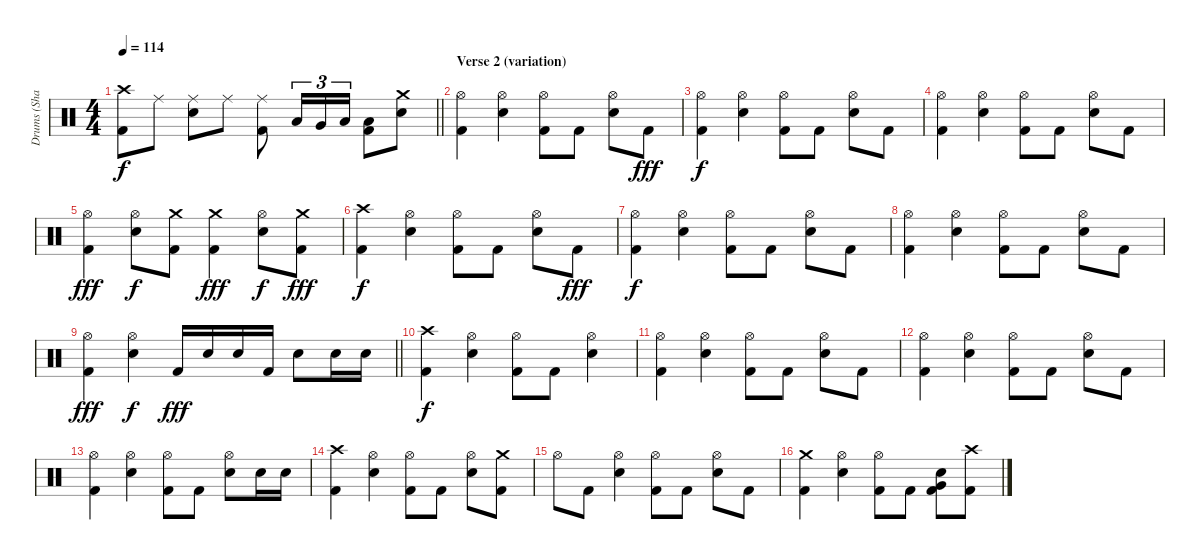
\track ("Drums (Shawn)" "Drums (Sha") {instrument percussion}
\staff {score}
\articulation defaults
\ts (4 4)
\tempo 114
\clef neutral
\barLineRight lightlight
\ks c
("Crash high (hit)" "Kick (hit) 2").8{dy f} "Ride (middle)".8 ("Ride (middle)" "Snare (hit) 2").8 "Ride (middle)".8 ("Ride (middle)" "Kick (hit) 2").8 "Low Tom (hit)".16{tu (3 2)} "Very Low Tom (hit)".16{tu (3 2)} "Low Floor Tom (hit)".16{tu (3 2)} ("Low Floor Tom (hit)" "Kick (hit) 2").8 ("Crash medium (hit)" "Snare (hit) 2").8 |
\section ("" "Verse 2 (variation)")
("Hi-Hat (open)" "Kick (hit) 2").4 ("Hi-Hat (open)" "Snare (hit) 2").4 ("Hi-Hat (open)" "Kick (hit) 2").8 "Kick (hit) 2".8 ("Hi-Hat (open)" "Snare (hit) 2").8 "Kick (hit) 2".8{dy fff} |
("Hi-Hat (open)" "Kick (hit) 2").4{dy f} ("Hi-Hat (open)" "Snare (hit) 2").4 ("Hi-Hat (open)" "Kick (hit) 2").8 "Kick (hit) 2".8 ("Hi-Hat (open)" "Snare (hit) 2").8 "Kick (hit) 2".8 |
("Hi-Hat (open)" "Kick (hit) 2").4 ("Hi-Hat (open)" "Snare (hit) 2").4 ("Hi-Hat (open)" "Kick (hit) 2").8 "Kick (hit) 2".8 ("Hi-Hat (open)" "Snare (hit) 2").8 "Kick (hit) 2".8 |
("Hi-Hat (open)" "Kick (hit) 2").4{dy fff} ("Hi-Hat (open)" "Snare (hit) 2").8{dy f} ("Crash medium (hit)" "Kick (hit) 2").8 ("Crash medium (hit)" "Kick (hit) 2").4{dy fff} ("Hi-Hat (open)" "Snare (hit) 2").8{dy f} ("Crash medium (hit)" "Kick (hit) 2").8{dy fff} |
("Crash high (hit)" "Kick (hit) 2").4{dy f} ("Hi-Hat (open)" "Snare (hit) 2").4 ("Hi-Hat (open)" "Kick (hit) 2").8 "Kick (hit) 2".8 ("Hi-Hat (open)" "Snare (hit) 2").8 "Kick (hit) 2".8{dy fff} |
("Hi-Hat (open)" "Kick (hit) 2").4{dy f} ("Hi-Hat (open)" "Snare (hit) 2").4 ("Hi-Hat (open)" "Kick (hit) 2").8 "Kick (hit) 2".8 ("Hi-Hat (open)" "Snare (hit) 2").8 "Kick (hit) 2".8 |
("Hi-Hat (open)" "Kick (hit) 2").4 ("Hi-Hat (open)" "Snare (hit) 2").4 ("Hi-Hat (open)" "Kick (hit) 2").8 "Kick (hit) 2".8 ("Hi-Hat (open)" "Snare (hit) 2").8 "Kick (hit) 2".8 |
\barLineRight lightlight
("Hi-Hat (open)" "Kick (hit) 2").4{dy fff} ("Hi-Hat (open)" "Snare (hit) 2").4{dy f} "Kick (hit) 2".16{dy fff} "Snare (hit) 2".16 "Snare (hit) 2".16 "Kick (hit) 2".16 "Snare (hit) 2".8 "Snare (hit) 2".16 "Snare (hit) 2".16 |
\section ("" "")
("Crash high (hit)" "Kick (hit) 2").4{dy f} ("Hi-Hat (open)" "Snare (hit) 2").4 ("Hi-Hat (open)" "Kick (hit) 2").8 "Kick (hit) 2".8 ("Hi-Hat (open)" "Snare (hit) 2").4 |
("Hi-Hat (open)" "Kick (hit) 2").4 ("Hi-Hat (open)" "Snare (hit) 2").4 ("Hi-Hat (open)" "Kick (hit) 2").8 "Kick (hit) 2".8 ("Hi-Hat (open)" "Snare (hit) 2").8 "Kick (hit) 2".8 |
("Hi-Hat (open)" "Kick (hit) 2").4 ("Hi-Hat (open)" "Snare (hit) 2").4 ("Hi-Hat (open)" "Kick (hit) 2").8 "Kick (hit) 2".8 ("Hi-Hat (open)" "Snare (hit) 2").8 "Kick (hit) 2".8 |
("Hi-Hat (open)" "Kick (hit) 2").4 ("Hi-Hat (open)" "Snare (hit) 2").4 ("Hi-Hat (open)" "Kick (hit) 2").8 "Kick (hit) 2".8 ("Hi-Hat (open)" "Snare (hit) 2").8 "Snare (hit) 2".16 "Snare (hit) 2".16 |
("Crash high (hit)" "Kick (hit) 2").4 ("Hi-Hat (open)" "Snare (hit) 2").4 ("Hi-Hat (open)" "Kick (hit) 2").8 "Kick (hit) 2".8 ("Hi-Hat (open)" "Snare (hit) 2").8 ("Crash medium (hit)" "Kick (hit) 2").8 |
"Hi-Hat (open)".8 "Kick (hit) 2".8 ("Hi-Hat (open)" "Snare (hit) 2").4 ("Hi-Hat (open)" "Kick (hit) 2").8 "Kick (hit) 2".8 ("Hi-Hat (open)" "Snare (hit) 2").8 "Kick (hit) 2".8 |
("Crash medium (hit)" "Kick (hit) 2").4 ("Hi-Hat (open)" "Snare (hit) 2").4 ("Hi-Hat (open)" "Kick (hit) 2").8 "Kick (hit) 2".8 ("Very Low Tom (hit)" "Snare (hit) 2" "Kick (hit) 2").8 ("Crash high (hit)" "Kick (hit) 2").8
